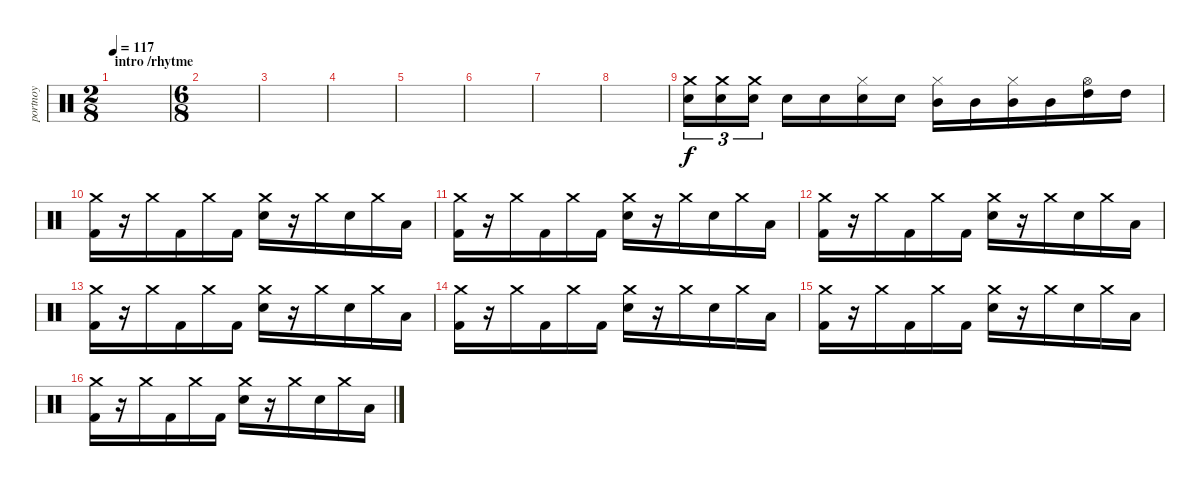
\track ("portnoy" "portnoy") {instrument percussion}
\staff {score}
\articulation defaults
\ts (2 8)
\section ("" "intro /rhytme")
\tempo 117
\clef neutral
\ks c
|
\ts (6 8)
|
|
|
|
|
|
|
("Crash medium (hit)" "Snare (hit) 2").16{tu (3 2)} ("Crash medium (hit)" "Snare (hit) 2").16{tu (3 2)} ("Crash medium (hit)" "Snare (hit) 2").16{tu (3 2)} "Electric Snare (hit)".16 "Electric Snare (hit)".16 ("Hi-Hat (closed)" "Electric Snare (hit)").16 "Electric Snare (hit)".16 ("Hi-Hat (closed)" "Mid Tom (hit)").16 "Mid Tom (hit)".16 ("Hi-Hat (closed)" "Mid Tom (hit)").16 "Mid Tom (hit)".16 ("Hi-Hat (open)" "High Tom (hit)").16 "High Tom (hit)".16 |
("Crash medium (hit)" "Kick (hit) 2").16 r.16 "Crash medium (hit)".16 "Kick (hit) 2".16 "Crash medium (hit)".16 "Kick (hit) 2".16 ("Crash medium (hit)" "Electric Snare (hit)").16 r.16 "Crash medium (hit)".16 "Electric Snare (hit)".16 "Crash medium (hit)".16 "Low Tom (hit)".16 |
("Crash medium (hit)" "Kick (hit) 2").16 r.16 "Crash medium (hit)".16 "Kick (hit) 2".16 "Crash medium (hit)".16 "Kick (hit) 2".16 ("Crash medium (hit)" "Electric Snare (hit)").16 r.16 "Crash medium (hit)".16 "Electric Snare (hit)".16 "Crash medium (hit)".16 "Low Tom (hit)".16 |
("Crash medium (hit)" "Kick (hit) 2").16 r.16 "Crash medium (hit)".16 "Kick (hit) 2".16 "Crash medium (hit)".16 "Kick (hit) 2".16 ("Crash medium (hit)" "Electric Snare (hit)").16 r.16 "Crash medium (hit)".16 "Electric Snare (hit)".16 "Crash medium (hit)".16 "Low Tom (hit)".16 |
("Crash medium (hit)" "Kick (hit) 2").16 r.16 "Crash medium (hit)".16 "Kick (hit) 2".16 "Crash medium (hit)".16 "Kick (hit) 2".16 ("Crash medium (hit)" "Electric Snare (hit)").16 r.16 "Crash medium (hit)".16 "Electric Snare (hit)".16 "Crash medium (hit)".16 "Low Tom (hit)".16 |
("Crash medium (hit)" "Kick (hit) 2").16 r.16 "Crash medium (hit)".16 "Kick (hit) 2".16 "Crash medium (hit)".16 "Kick (hit) 2".16 ("Crash medium (hit)" "Electric Snare (hit)").16 r.16 "Crash medium (hit)".16 "Electric Snare (hit)".16 "Crash medium (hit)".16 "Low Tom (hit)".16 |
("Crash medium (hit)" "Kick (hit) 2").16 r.16 "Crash medium (hit)".16 "Kick (hit) 2".16 "Crash medium (hit)".16 "Kick (hit) 2".16 ("Crash medium (hit)" "Electric Snare (hit)").16 r.16 "Crash medium (hit)".16 "Electric Snare (hit)".16 "Crash medium (hit)".16 "Low Tom (hit)".16 |
("Crash medium (hit)" "Kick (hit) 2").16 r.16 "Crash medium (hit)".16 "Kick (hit) 2".16 "Crash medium (hit)".16 "Kick (hit) 2".16 ("Crash medium (hit)" "Electric Snare (hit)").16 r.16 "Crash medium (hit)".16 "Electric Snare (hit)".16 "Crash medium (hit)".16 "Low Tom (hit)".16
